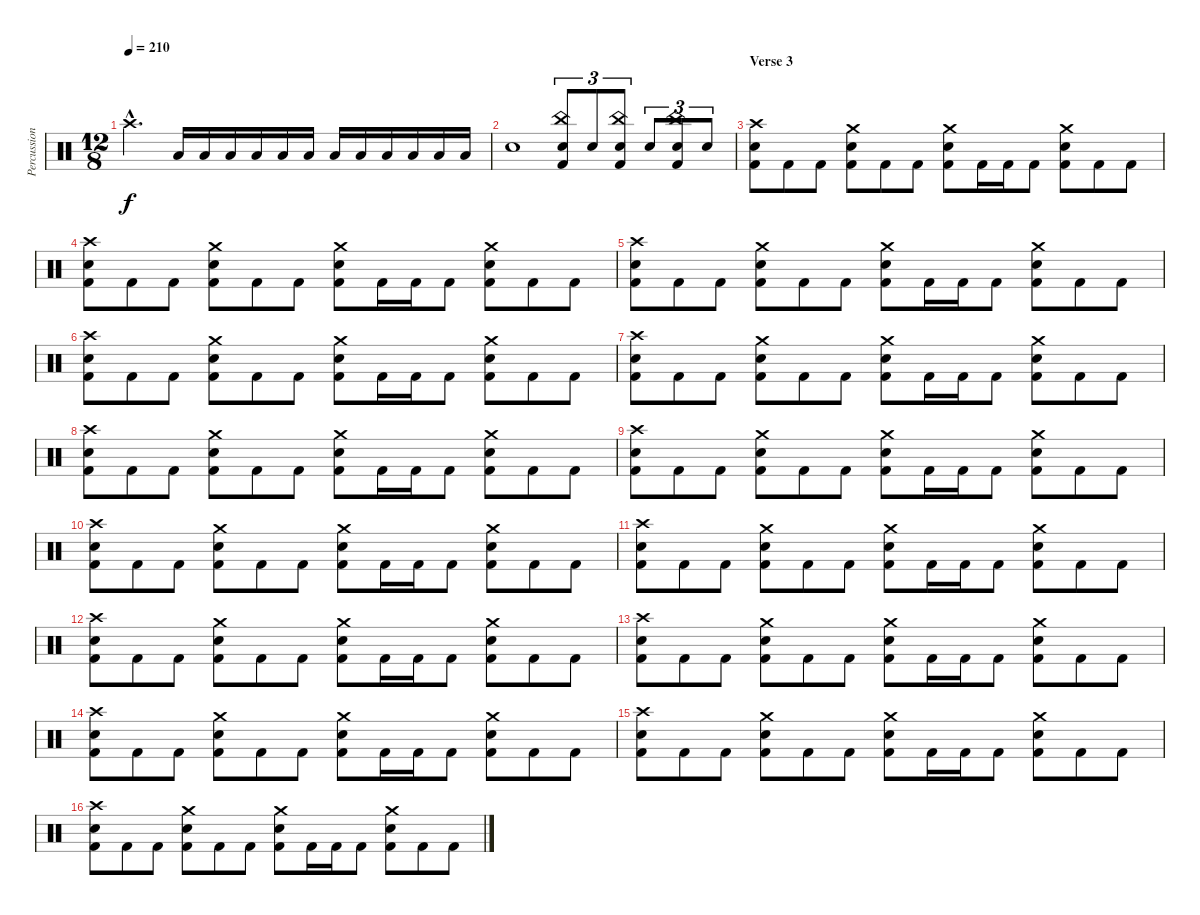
\track ("Percussion" "Percussion") {instrument percussion}
\staff {score}
\articulation defaults
\ts (12 8)
\tempo 210
\clef neutral
\ks c "Crash high (hit)"{hac}.2{d dy f} "Low Floor Tom (hit)".16 "Low Floor Tom (hit)".16 "Low Floor Tom (hit)".16 "Low Floor Tom (hit)".16 "Low Floor Tom (hit)".16 "Low Floor Tom (hit)".16 "Low Floor Tom (hit)".16 "Low Floor Tom (hit)".16 "Low Floor Tom (hit)".16 "Low Floor Tom (hit)".16 "Low Floor Tom (hit)".16 "Low Floor Tom (hit)".16
|
"Electric Snare (hit)".1 ("China (hit)" "Electric Snare (hit)" "Kick (hit) 2").8{tu (3 2)} "Electric Snare (hit)".8{tu (3 2)} ("China (hit)" "Electric Snare (hit)" "Kick (hit) 2").8{tu (3 2)} "Electric Snare (hit)".8{tu (3 2)} ("China (hit)" "Electric Snare (hit)" "Kick (hit) 2").8{tu (3 2)} "Electric Snare (hit)".8{tu (3 2)} |
\section ("" "Verse 3")
("Crash high (hit)" "Snare (hit) 2" "Kick (hit) 2").8 "Kick (hit) 2".8 "Kick (hit) 2".8 ("Crash medium (hit)" "Snare (hit) 2" "Kick (hit) 2").8 "Kick (hit) 2".8 "Kick (hit) 2".8 ("Crash medium (hit)" "Snare (hit) 2" "Kick (hit) 2").8 "Kick (hit) 2".16 "Kick (hit) 2".16 "Kick (hit) 2".8 ("Crash medium (hit)" "Snare (hit) 2" "Kick (hit) 2").8 "Kick (hit) 2".8 "Kick (hit) 2".8 |
("Crash high (hit)" "Snare (hit) 2" "Kick (hit) 2").8 "Kick (hit) 2".8 "Kick (hit) 2".8 ("Crash medium (hit)" "Snare (hit) 2" "Kick (hit) 2").8 "Kick (hit) 2".8 "Kick (hit) 2".8 ("Crash medium (hit)" "Snare (hit) 2" "Kick (hit) 2").8 "Kick (hit) 2".16 "Kick (hit) 2".16 "Kick (hit) 2".8 ("Crash medium (hit)" "Snare (hit) 2" "Kick (hit) 2").8 "Kick (hit) 2".8 "Kick (hit) 2".8 |
("Crash high (hit)" "Snare (hit) 2" "Kick (hit) 2").8 "Kick (hit) 2".8 "Kick (hit) 2".8 ("Crash medium (hit)" "Snare (hit) 2" "Kick (hit) 2").8 "Kick (hit) 2".8 "Kick (hit) 2".8 ("Crash medium (hit)" "Snare (hit) 2" "Kick (hit) 2").8 "Kick (hit) 2".16 "Kick (hit) 2".16 "Kick (hit) 2".8 ("Crash medium (hit)" "Snare (hit) 2" "Kick (hit) 2").8 "Kick (hit) 2".8 "Kick (hit) 2".8 |
("Crash high (hit)" "Snare (hit) 2" "Kick (hit) 2").8 "Kick (hit) 2".8 "Kick (hit) 2".8 ("Crash medium (hit)" "Snare (hit) 2" "Kick (hit) 2").8 "Kick (hit) 2".8 "Kick (hit) 2".8 ("Crash medium (hit)" "Snare (hit) 2" "Kick (hit) 2").8 "Kick (hit) 2".16 "Kick (hit) 2".16 "Kick (hit) 2".8 ("Crash medium (hit)" "Snare (hit) 2" "Kick (hit) 2").8 "Kick (hit) 2".8 "Kick (hit) 2".8 |
("Crash high (hit)" "Snare (hit) 2" "Kick (hit) 2").8 "Kick (hit) 2".8 "Kick (hit) 2".8 ("Crash medium (hit)" "Snare (hit) 2" "Kick (hit) 2").8 "Kick (hit) 2".8 "Kick (hit) 2".8 ("Crash medium (hit)" "Snare (hit) 2" "Kick (hit) 2").8 "Kick (hit) 2".16 "Kick (hit) 2".16 "Kick (hit) 2".8 ("Crash medium (hit)" "Snare (hit) 2" "Kick (hit) 2").8 "Kick (hit) 2".8 "Kick (hit) 2".8 |
("Crash high (hit)" "Snare (hit) 2" "Kick (hit) 2").8 "Kick (hit) 2".8 "Kick (hit) 2".8 ("Crash medium (hit)" "Snare (hit) 2" "Kick (hit) 2").8 "Kick (hit) 2".8 "Kick (hit) 2".8 ("Crash medium (hit)" "Snare (hit) 2" "Kick (hit) 2").8 "Kick (hit) 2".16 "Kick (hit) 2".16 "Kick (hit) 2".8 ("Crash medium (hit)" "Snare (hit) 2" "Kick (hit) 2").8 "Kick (hit) 2".8 "Kick (hit) 2".8 |
("Crash high (hit)" "Snare (hit) 2" "Kick (hit) 2").8 "Kick (hit) 2".8 "Kick (hit) 2".8 ("Crash medium (hit)" "Snare (hit) 2" "Kick (hit) 2").8 "Kick (hit) 2".8 "Kick (hit) 2".8 ("Crash medium (hit)" "Snare (hit) 2" "Kick (hit) 2").8 "Kick (hit) 2".16 "Kick (hit) 2".16 "Kick (hit) 2".8 ("Crash medium (hit)" "Snare (hit) 2" "Kick (hit) 2").8 "Kick (hit) 2".8 "Kick (hit) 2".8 |
("Crash high (hit)" "Snare (hit) 2" "Kick (hit) 2").8 "Kick (hit) 2".8 "Kick (hit) 2".8 ("Crash medium (hit)" "Snare (hit) 2" "Kick (hit) 2").8 "Kick (hit) 2".8 "Kick (hit) 2".8 ("Crash medium (hit)" "Snare (hit) 2" "Kick (hit) 2").8 "Kick (hit) 2".16 "Kick (hit) 2".16 "Kick (hit) 2".8 ("Crash medium (hit)" "Snare (hit) 2" "Kick (hit) 2").8 "Kick (hit) 2".8 "Kick (hit) 2".8 |
("Crash high (hit)" "Snare (hit) 2" "Kick (hit) 2").8 "Kick (hit) 2".8 "Kick (hit) 2".8 ("Crash medium (hit)" "Snare (hit) 2" "Kick (hit) 2").8 "Kick (hit) 2".8 "Kick (hit) 2".8 ("Crash medium (hit)" "Snare (hit) 2" "Kick (hit) 2").8 "Kick (hit) 2".16 "Kick (hit) 2".16 "Kick (hit) 2".8 ("Crash medium (hit)" "Snare (hit) 2" "Kick (hit) 2").8 "Kick (hit) 2".8 "Kick (hit) 2".8 |
("Crash high (hit)" "Snare (hit) 2" "Kick (hit) 2").8 "Kick (hit) 2".8 "Kick (hit) 2".8 ("Crash medium (hit)" "Snare (hit) 2" "Kick (hit) 2").8 "Kick (hit) 2".8 "Kick (hit) 2".8 ("Crash medium (hit)" "Snare (hit) 2" "Kick (hit) 2").8 "Kick (hit) 2".16 "Kick (hit) 2".16 "Kick (hit) 2".8 ("Crash medium (hit)" "Snare (hit) 2" "Kick (hit) 2").8 "Kick (hit) 2".8 "Kick (hit) 2".8 |
("Crash high (hit)" "Snare (hit) 2" "Kick (hit) 2").8 "Kick (hit) 2".8 "Kick (hit) 2".8 ("Crash medium (hit)" "Snare (hit) 2" "Kick (hit) 2").8 "Kick (hit) 2".8 "Kick (hit) 2".8 ("Crash medium (hit)" "Snare (hit) 2" "Kick (hit) 2").8 "Kick (hit) 2".16 "Kick (hit) 2".16 "Kick (hit) 2".8 ("Crash medium (hit)" "Snare (hit) 2" "Kick (hit) 2").8 "Kick (hit) 2".8 "Kick (hit) 2".8 |
("Crash high (hit)" "Snare (hit) 2" "Kick (hit) 2").8 "Kick (hit) 2".8 "Kick (hit) 2".8 ("Crash medium (hit)" "Snare (hit) 2" "Kick (hit) 2").8 "Kick (hit) 2".8 "Kick (hit) 2".8 ("Crash medium (hit)" "Snare (hit) 2" "Kick (hit) 2").8 "Kick (hit) 2".16 "Kick (hit) 2".16 "Kick (hit) 2".8 ("Crash medium (hit)" "Snare (hit) 2" "Kick (hit) 2").8 "Kick (hit) 2".8 "Kick (hit) 2".8 |
("Crash high (hit)" "Snare (hit) 2" "Kick (hit) 2").8 "Kick (hit) 2".8 "Kick (hit) 2".8 ("Crash medium (hit)" "Snare (hit) 2" "Kick (hit) 2").8 "Kick (hit) 2".8 "Kick (hit) 2".8 ("Crash medium (hit)" "Snare (hit) 2" "Kick (hit) 2").8 "Kick (hit) 2".16 "Kick (hit) 2".16 "Kick (hit) 2".8 ("Crash medium (hit)" "Snare (hit) 2" "Kick (hit) 2").8 "Kick (hit) 2".8 "Kick (hit) 2".8 |
("Crash high (hit)" "Snare (hit) 2" "Kick (hit) 2").8 "Kick (hit) 2".8 "Kick (hit) 2".8 ("Crash medium (hit)" "Snare (hit) 2" "Kick (hit) 2").8 "Kick (hit) 2".8 "Kick (hit) 2".8 ("Crash medium (hit)" "Snare (hit) 2" "Kick (hit) 2").8 "Kick (hit) 2".16 "Kick (hit) 2".16 "Kick (hit) 2".8 ("Crash medium (hit)" "Snare (hit) 2" "Kick (hit) 2").8 "Kick (hit) 2".8 "Kick (hit) 2".8
